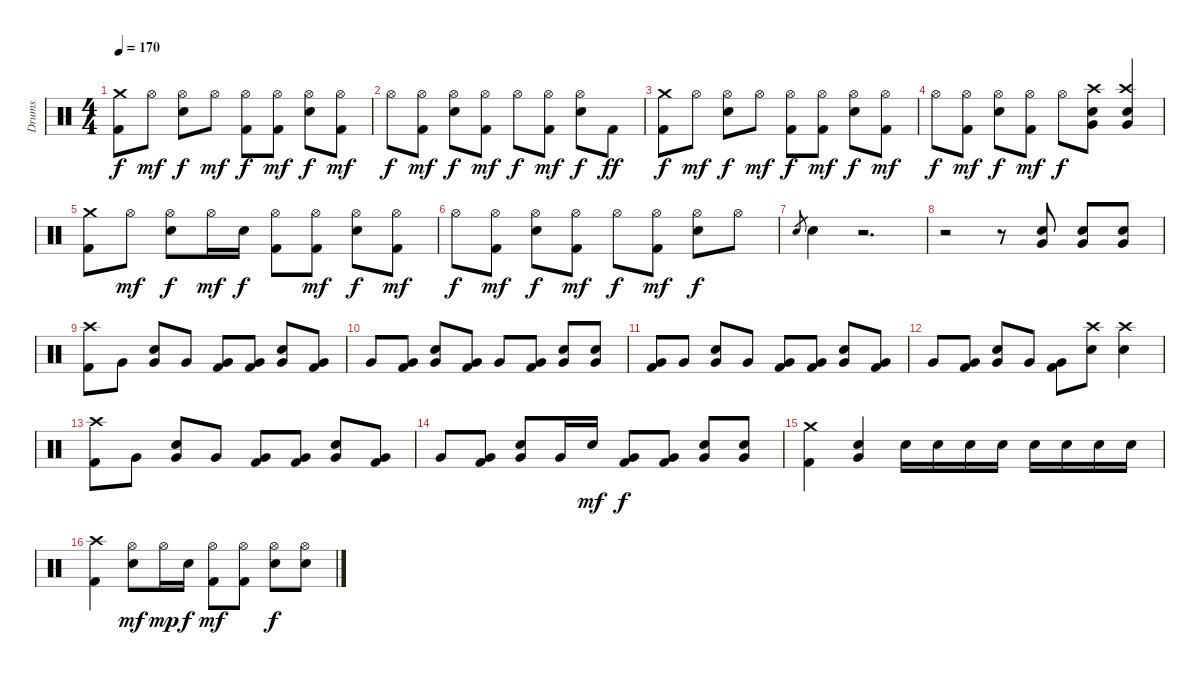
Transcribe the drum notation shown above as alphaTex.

\track ("Drums" "Drums") {instrument percussion}
\staff {score}
\articulation defaults
\ts (4 4)
\tempo 170
\clef neutral
\ks c
("Crash medium (hit)" "Kick (hit) 2").8{dy f} "Hi-Hat (open)".8{dy mf} ("Hi-Hat (open)" "Electric Snare (hit)").8{dy f} "Hi-Hat (open)".8{dy mf} ("Hi-Hat (open)" "Kick (hit) 2").8{dy f} ("Hi-Hat (open)" "Kick (hit) 2").8{dy mf} ("Hi-Hat (open)" "Electric Snare (hit)").8{dy f} ("Hi-Hat (open)" "Kick (hit) 2").8{dy mf} |
"Hi-Hat (open)".8{dy f} ("Hi-Hat (open)" "Kick (hit) 2").8{dy mf} ("Hi-Hat (open)" "Electric Snare (hit)").8{dy f} ("Hi-Hat (open)" "Kick (hit) 2").8{dy mf} "Hi-Hat (open)".8{dy f} ("Hi-Hat (open)" "Kick (hit) 2").8{dy mf} ("Hi-Hat (open)" "Electric Snare (hit)").8{dy f} "Kick (hit) 2".8{dy ff} |
("Crash medium (hit)" "Kick (hit) 2").8{dy f} "Hi-Hat (open)".8{dy mf} ("Hi-Hat (open)" "Electric Snare (hit)").8{dy f} "Hi-Hat (open)".8{dy mf} ("Hi-Hat (open)" "Kick (hit) 2").8{dy f} ("Hi-Hat (open)" "Kick (hit) 2").8{dy mf} ("Hi-Hat (open)" "Electric Snare (hit)").8{dy f} ("Hi-Hat (open)" "Kick (hit) 2").8{dy mf} |
"Hi-Hat (open)".8{dy f} ("Hi-Hat (open)" "Kick (hit) 2").8{dy mf} ("Hi-Hat (open)" "Electric Snare (hit)").8{dy f} ("Hi-Hat (open)" "Kick (hit) 2").8{dy mf} "Hi-Hat (open)".8{dy f} ("Crash high (hit)" "Very Low Tom (hit)" "Electric Snare (hit)").8 ("Crash high (hit)" "Very Low Tom (hit)" "Electric Snare (hit)").4 |
("Crash medium (hit)" "Kick (hit) 2").8 "Hi-Hat (open)".8{dy mf} ("Hi-Hat (open)" "Electric Snare (hit)").8{dy f} "Hi-Hat (open)".16{dy mf} "Electric Snare (hit)".16{dy f} ("Hi-Hat (open)" "Kick (hit) 2").8 ("Hi-Hat (open)" "Kick (hit) 2").8{dy mf} ("Hi-Hat (open)" "Electric Snare (hit)").8{dy f} ("Hi-Hat (open)" "Kick (hit) 2").8{dy mf} |
"Hi-Hat (open)".8{dy f} ("Hi-Hat (open)" "Kick (hit) 2").8{dy mf} ("Hi-Hat (open)" "Electric Snare (hit)").8{dy f} ("Hi-Hat (open)" "Kick (hit) 2").8{dy mf} "Hi-Hat (open)".8{dy f} ("Hi-Hat (open)" "Kick (hit) 2").8{dy mf} ("Hi-Hat (open)" "Electric Snare (hit)").8{dy f} "Hi-Hat (open)".8 |
"Electric Snare (hit)".8{gr} "Electric Snare (hit)".4 r.2{d} |
r.2 r.8 ("Very Low Tom (hit)" "Electric Snare (hit)").8 ("Very Low Tom (hit)" "Electric Snare (hit)").8 ("Very Low Tom (hit)" "Electric Snare (hit)").8 |
("Crash high (hit)" "Kick (hit) 2").8 "Very Low Tom (hit)".8 ("Very Low Tom (hit)" "Electric Snare (hit)").8 "Very Low Tom (hit)".8 ("Very Low Tom (hit)" "Kick (hit) 2").8 ("Very Low Tom (hit)" "Kick (hit) 2").8 ("Very Low Tom (hit)" "Electric Snare (hit)").8 ("Very Low Tom (hit)" "Kick (hit) 2").8 |
"Very Low Tom (hit)".8 ("Very Low Tom (hit)" "Kick (hit) 2").8 ("Very Low Tom (hit)" "Electric Snare (hit)").8 ("Very Low Tom (hit)" "Kick (hit) 2").8 "Very Low Tom (hit)".8 ("Very Low Tom (hit)" "Kick (hit) 2").8 ("Very Low Tom (hit)" "Electric Snare (hit)").8 ("Very Low Tom (hit)" "Electric Snare (hit)").8 |
("Very Low Tom (hit)" "Kick (hit) 2").8 "Very Low Tom (hit)".8 ("Very Low Tom (hit)" "Electric Snare (hit)").8 "Very Low Tom (hit)".8 ("Very Low Tom (hit)" "Kick (hit) 2").8 ("Very Low Tom (hit)" "Kick (hit) 2").8 ("Very Low Tom (hit)" "Electric Snare (hit)").8 ("Very Low Tom (hit)" "Kick (hit) 2").8 |
"Very Low Tom (hit)".8 ("Very Low Tom (hit)" "Kick (hit) 2").8 ("Very Low Tom (hit)" "Electric Snare (hit)").8 "Very Low Tom (hit)".8 ("Very Low Tom (hit)" "Kick (hit) 2").8 ("Crash high (hit)" "Electric Snare (hit)").8 ("Crash high (hit)" "Electric Snare (hit)").4 |
("Crash high (hit)" "Kick (hit) 2").8 "Very Low Tom (hit)".8 ("Very Low Tom (hit)" "Electric Snare (hit)").8 "Very Low Tom (hit)".8 ("Very Low Tom (hit)" "Kick (hit) 2").8 ("Very Low Tom (hit)" "Kick (hit) 2").8 ("Very Low Tom (hit)" "Electric Snare (hit)").8 ("Very Low Tom (hit)" "Kick (hit) 2").8 |
"Very Low Tom (hit)".8 ("Very Low Tom (hit)" "Kick (hit) 2").8 ("Very Low Tom (hit)" "Electric Snare (hit)").8 "Very Low Tom (hit)".16 "Electric Snare (hit)".16{dy mf} ("Very Low Tom (hit)" "Kick (hit) 2").8{dy f} ("Very Low Tom (hit)" "Kick (hit) 2").8 ("Very Low Tom (hit)" "Electric Snare (hit)").8 ("Very Low Tom (hit)" "Electric Snare (hit)").8 |
("Crash medium (hit)" "Kick (hit) 2").4 ("Very Low Tom (hit)" "Electric Snare (hit)").4 "Electric Snare (hit)".16 "Electric Snare (hit)".16 "Electric Snare (hit)".16 "Electric Snare (hit)".16 "Electric Snare (hit)".16 "Electric Snare (hit)".16 "Electric Snare (hit)".16 "Electric Snare (hit)".16 |
("Crash high (hit)" "Kick (hit) 2").4 ("Hi-Hat (open)" "Electric Snare (hit)").8{dy mf} "Hi-Hat (open)".16{dy mp} "Electric Snare (hit)".16{dy f} ("Hi-Hat (open)" "Kick (hit) 2").8{dy mf} ("Hi-Hat (open)" "Kick (hit) 2").8 ("Hi-Hat (open)" "Electric Snare (hit)").8{dy f} ("Hi-Hat (open)" "Electric Snare (hit)").8
